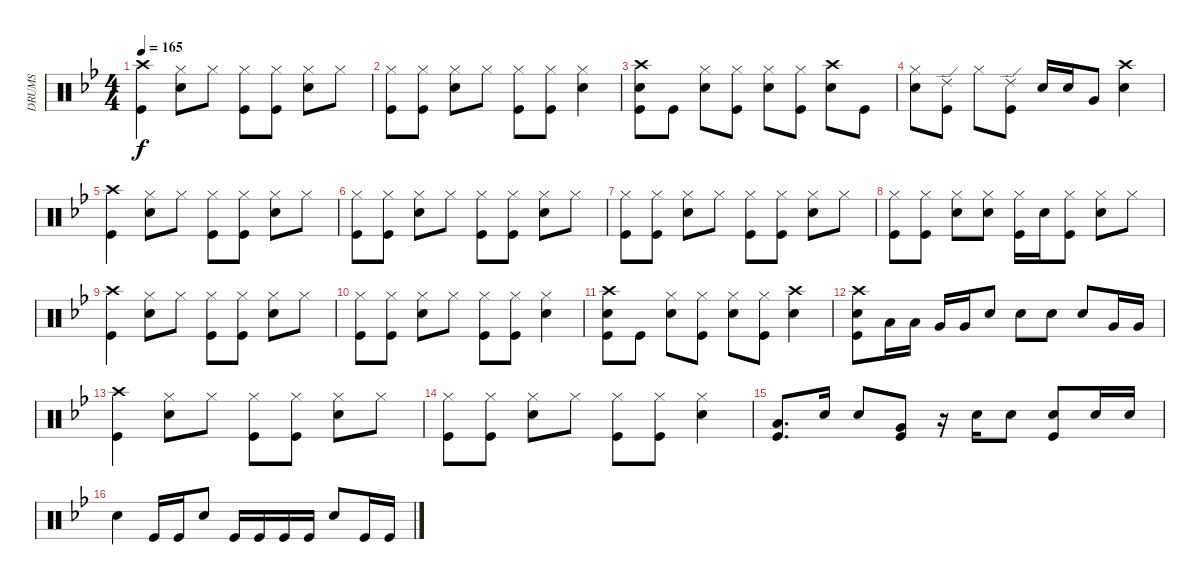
\track ("DRUMS" "DRUMS") {instrument percussion}
\staff {score}
\articulation defaults
\ts (4 4)
\tempo 165
\clef neutral
\ks bb
("Crash high (hit)" "Kick (hit)").4{dy f} ("Hi-Hat (closed)" "Electric Snare (hit)").8 "Hi-Hat (closed)".8 ("Hi-Hat (closed)" "Kick (hit)").8 ("Hi-Hat (closed)" "Kick (hit)").8 ("Hi-Hat (closed)" "Electric Snare (hit)").8 "Hi-Hat (closed)".8 |
("Hi-Hat (closed)" "Kick (hit)").8 ("Hi-Hat (closed)" "Kick (hit)").8 ("Hi-Hat (closed)" "Electric Snare (hit)").8 "Hi-Hat (closed)".8 ("Hi-Hat (closed)" "Kick (hit)").8 ("Hi-Hat (closed)" "Kick (hit)").8 ("Hi-Hat (closed)" "Electric Snare (hit)").4 |
("Crash high (hit)" "Electric Snare (hit)" "Kick (hit)").8 "Kick (hit)".8 ("Hi-Hat (closed)" "Electric Snare (hit)").8 ("Hi-Hat (closed)" "Kick (hit)").8 ("Hi-Hat (closed)" "Electric Snare (hit)").8 ("Hi-Hat (closed)" "Kick (hit)").8 ("Crash high (hit)" "Electric Snare (hit)").8 "Kick (hit)".8 |
("Hi-Hat (closed)" "Electric Snare (hit)").8 ("Ride (edge) 2" "Kick (hit)").8 "Hi-Hat (closed)".8 ("Ride (edge) 2" "Kick (hit)").8 "Electric Snare (hit)".16 "Electric Snare (hit)".16 "Very Low Tom (hit)".8 ("Crash high (hit)" "Electric Snare (hit)").4 |
("Crash high (hit)" "Kick (hit)").4 ("Hi-Hat (closed)" "Electric Snare (hit)").8 "Hi-Hat (closed)".8 ("Hi-Hat (closed)" "Kick (hit)").8 ("Hi-Hat (closed)" "Kick (hit)").8 ("Hi-Hat (closed)" "Electric Snare (hit)").8 "Hi-Hat (closed)".8 |
("Hi-Hat (closed)" "Kick (hit)").8 ("Hi-Hat (closed)" "Kick (hit)").8 ("Hi-Hat (closed)" "Electric Snare (hit)").8 "Hi-Hat (closed)".8 ("Hi-Hat (closed)" "Kick (hit)").8 ("Hi-Hat (closed)" "Kick (hit)").8 ("Hi-Hat (closed)" "Electric Snare (hit)").8 "Hi-Hat (closed)".8 |
("Hi-Hat (closed)" "Kick (hit)").8 ("Hi-Hat (closed)" "Kick (hit)").8 ("Hi-Hat (closed)" "Electric Snare (hit)").8 "Hi-Hat (closed)".8 ("Hi-Hat (closed)" "Kick (hit)").8 ("Hi-Hat (closed)" "Kick (hit)").8 ("Hi-Hat (closed)" "Electric Snare (hit)").8 "Hi-Hat (closed)".8 |
("Hi-Hat (closed)" "Kick (hit)").8 ("Hi-Hat (closed)" "Kick (hit)").8 ("Hi-Hat (closed)" "Electric Snare (hit)").8 ("Hi-Hat (closed)" "Electric Snare (hit)").8 ("Hi-Hat (closed)" "Kick (hit)").16 "Electric Snare (hit)".16 ("Hi-Hat (closed)" "Kick (hit)").8 ("Hi-Hat (closed)" "Electric Snare (hit)").8 "Hi-Hat (closed)".8 |
("Crash high (hit)" "Kick (hit)").4 ("Hi-Hat (closed)" "Electric Snare (hit)").8 "Hi-Hat (closed)".8 ("Hi-Hat (closed)" "Kick (hit)").8 ("Hi-Hat (closed)" "Kick (hit)").8 ("Hi-Hat (closed)" "Electric Snare (hit)").8 "Hi-Hat (closed)".8 |
("Hi-Hat (closed)" "Kick (hit)").8 ("Hi-Hat (closed)" "Kick (hit)").8 ("Hi-Hat (closed)" "Electric Snare (hit)").8 "Hi-Hat (closed)".8 ("Hi-Hat (closed)" "Kick (hit)").8 ("Hi-Hat (closed)" "Kick (hit)").8 ("Hi-Hat (closed)" "Electric Snare (hit)").4 |
("Crash high (hit)" "Electric Snare (hit)" "Kick (hit)").8 "Kick (hit)".8 ("Hi-Hat (closed)" "Electric Snare (hit)").8 ("Hi-Hat (closed)" "Kick (hit)").8 ("Hi-Hat (closed)" "Electric Snare (hit)").8 ("Hi-Hat (closed)" "Kick (hit)").8 ("Crash high (hit)" "Electric Snare (hit)").4 |
("Crash high (hit)" "Electric Snare (hit)" "Kick (hit)").8 "Low Tom (hit)".16 "Low Tom (hit)".16 "Very Low Tom (hit)".16 "Very Low Tom (hit)".16 "Electric Snare (hit)".8 "Electric Snare (hit)".8 "Electric Snare (hit)".8 "Electric Snare (hit)".8 "Very Low Tom (hit)".16 "Very Low Tom (hit)".16 |
("Crash high (hit)" "Kick (hit)").4 ("Hi-Hat (closed)" "Electric Snare (hit)").8 "Hi-Hat (closed)".8 ("Hi-Hat (closed)" "Kick (hit)").8 ("Hi-Hat (closed)" "Kick (hit)").8 ("Hi-Hat (closed)" "Electric Snare (hit)").8 "Hi-Hat (closed)".8 |
("Hi-Hat (closed)" "Kick (hit)").8 ("Hi-Hat (closed)" "Kick (hit)").8 ("Hi-Hat (closed)" "Electric Snare (hit)").8 "Hi-Hat (closed)".8 ("Hi-Hat (closed)" "Kick (hit)").8 ("Hi-Hat (closed)" "Kick (hit)").8 ("Hi-Hat (closed)" "Electric Snare (hit)").4 |
("Low Tom (hit)" "Kick (hit)").8{d} "Electric Snare (hit)".16 "Electric Snare (hit)".8 ("Very Low Tom (hit)" "Kick (hit)").8 r.16 "Electric Snare (hit)".16 "Electric Snare (hit)".8 ("Electric Snare (hit)" "Kick (hit)").8 "Electric Snare (hit)".16 "Electric Snare (hit)".16 |
"Electric Snare (hit)".4 "Kick (hit)".16 "Kick (hit)".16 "Electric Snare (hit)".8 "Kick (hit)".16 "Kick (hit)".16 "Kick (hit)".16 "Kick (hit)".16 "Electric Snare (hit)".8 "Kick (hit)".16 "Kick (hit)".16
